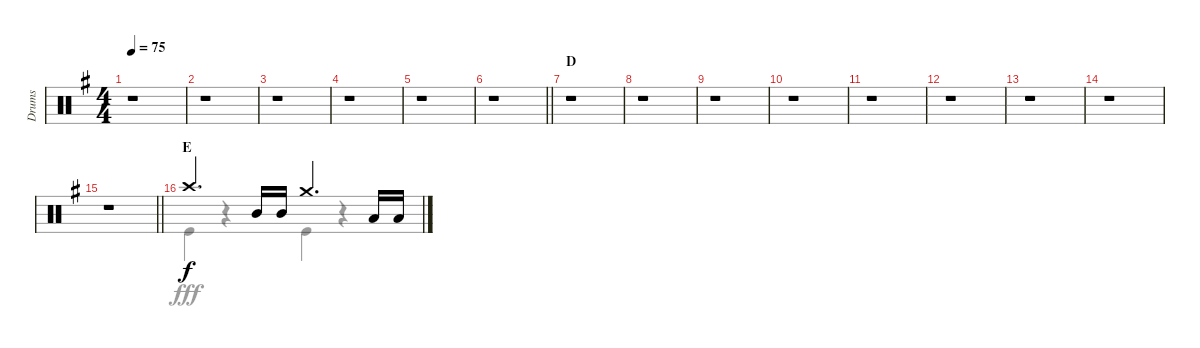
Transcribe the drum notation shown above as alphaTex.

\track ("Drums" "Drums") {instrument percussion}
\staff {score}
\articulation defaults
\voice
\ts (4 4)
\tempo 75
\clef neutral
\ks g
r.1{dy f} |
r.1 |
r.1 |
r.1 |
r.1 |
\barLineRight lightlight
r.1 |
\section ("" "D")
r.1 |
r.1 |
r.1 |
r.1 |
r.1 |
r.1 |
r.1 |
r.1 |
\barLineRight lightlight
r.1 |
\section ("" "E")
"Crash high (hit)".4{d} "Mid Tom (hit)".16 "Mid Tom (hit)".16 "Crash medium (hit)".4{d} "Low Tom (hit)".16 "Low Tom (hit)".16
\voice
\clef neutral
\ottava regular
\simile none
\ks g
r.1{dy fff} |
r.1 |
r.1 |
r.1 |
r.1 |
\barLineRight lightlight
r.1 |
r.1 |
r.1 |
r.1 |
r.1 |
r.1 |
r.1 |
r.1 |
r.1 |
\barLineRight lightlight
r.1 |
"Kick (hit)".4 r.4 "Kick (hit)".4 r.4
